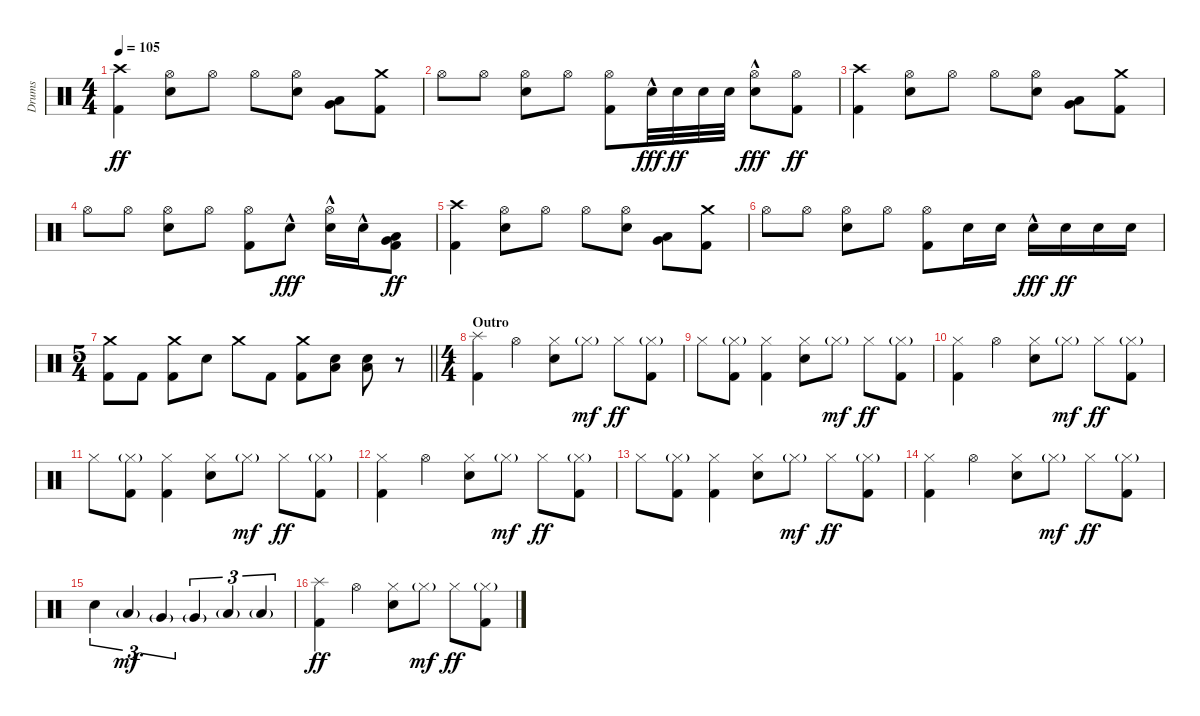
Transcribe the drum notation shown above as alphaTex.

\track ("Drums" "Drums") {instrument percussion}
\staff {score}
\articulation defaults
\ts (4 4)
\tempo 105
\clef neutral
\ks c
("Crash high (hit)" "Kick (hit) 2").4{dy ff} ("Hi-Hat (open)" "Electric Snare (hit)").8 "Hi-Hat (open)".8 "Hi-Hat (open)".8 ("Hi-Hat (open)" "Electric Snare (hit)").8 ("Very Low Tom (hit)" "Low Floor Tom (hit)").8 ("Crash medium (hit)" "Kick (hit) 2").8 |
"Hi-Hat (open)".8 "Hi-Hat (open)".8 ("Hi-Hat (open)" "Electric Snare (hit)").8 "Hi-Hat (open)".8 ("Hi-Hat (open)" "Kick (hit) 2").8 "Electric Snare (hit)"{hac}.32{dy fff} "Electric Snare (hit)".32{dy ff} "Electric Snare (hit)".32 "Electric Snare (hit)".32 ("Hi-Hat (open)" "Electric Snare (hit)"{hac}).8{dy fff} ("Hi-Hat (open)" "Kick (hit) 2").8{dy ff} |
("Crash high (hit)" "Kick (hit) 2").4 ("Hi-Hat (open)" "Electric Snare (hit)").8 "Hi-Hat (open)".8 "Hi-Hat (open)".8 ("Hi-Hat (open)" "Electric Snare (hit)").8 ("Very Low Tom (hit)" "Low Floor Tom (hit)").8 ("Crash medium (hit)" "Kick (hit) 2").8 |
"Hi-Hat (open)".8 "Hi-Hat (open)".8 ("Hi-Hat (open)" "Electric Snare (hit)").8 "Hi-Hat (open)".8 ("Hi-Hat (open)" "Kick (hit) 2").8 "Electric Snare (hit)"{hac}.8{dy fff} ("Hi-Hat (open)" "Electric Snare (hit)"{hac}).16 "Electric Snare (hit)"{hac}.16 ("Very Low Tom (hit)" "Low Floor Tom (hit)" "Kick (hit) 2").8{dy ff} |
("Crash high (hit)" "Kick (hit) 2").4 ("Hi-Hat (open)" "Electric Snare (hit)").8 "Hi-Hat (open)".8 "Hi-Hat (open)".8 ("Hi-Hat (open)" "Electric Snare (hit)").8 ("Very Low Tom (hit)" "Low Floor Tom (hit)").8 ("Crash medium (hit)" "Kick (hit) 2").8 |
"Hi-Hat (open)".8 "Hi-Hat (open)".8 ("Hi-Hat (open)" "Electric Snare (hit)").8 "Hi-Hat (open)".8 ("Hi-Hat (open)" "Kick (hit) 2").8 "Electric Snare (hit)".16 "Electric Snare (hit)".16 "Electric Snare (hit)"{hac}.16{dy fff} "Electric Snare (hit)".16{dy ff} "Electric Snare (hit)".16 "Electric Snare (hit)".16 |
\ts (5 4)
\barLineRight lightlight
("Crash medium (hit)" "Kick (hit) 2").8 "Kick (hit) 2".8 ("Crash medium (hit)" "Kick (hit) 2").8 "Electric Snare (hit)".8 "Crash medium (hit)".8 "Kick (hit) 2".8 ("Crash medium (hit)" "Kick (hit) 2").8 ("Electric Snare (hit)" "Low Floor Tom (hit)").8 ("Electric Snare (hit)" "Low Floor Tom (hit)").8 r.8 |
\ts (4 4)
\section ("" "Outro")
("Splash (hit)" "Kick (hit) 2").4 "Hi-Hat (open)".4 ("Hi-Hat (closed)" "Electric Snare (hit)").8 "Hi-Hat (closed)"{g}.8{dy mf} "Hi-Hat (closed)".8{dy ff} ("Hi-Hat (closed)"{g} "Kick (hit) 2").8 |
"Hi-Hat (closed)".8 ("Hi-Hat (closed)"{g} "Kick (hit) 2").8 ("Hi-Hat (closed)" "Kick (hit) 2").4 ("Hi-Hat (closed)" "Electric Snare (hit)").8 "Hi-Hat (closed)"{g}.8{dy mf} "Hi-Hat (closed)".8{dy ff} ("Hi-Hat (closed)"{g} "Kick (hit) 2").8 |
("Hi-Hat (closed)" "Kick (hit) 2").4 "Hi-Hat (open)".4 ("Hi-Hat (closed)" "Electric Snare (hit)").8 "Hi-Hat (closed)"{g}.8{dy mf} "Hi-Hat (closed)".8{dy ff} ("Hi-Hat (closed)"{g} "Kick (hit) 2").8 |
"Hi-Hat (closed)".8 ("Hi-Hat (closed)"{g} "Kick (hit) 2").8 ("Hi-Hat (closed)" "Kick (hit) 2").4 ("Hi-Hat (closed)" "Electric Snare (hit)").8 "Hi-Hat (closed)"{g}.8{dy mf} "Hi-Hat (closed)".8{dy ff} ("Hi-Hat (closed)"{g} "Kick (hit) 2").8 |
("Hi-Hat (closed)" "Kick (hit) 2").4 "Hi-Hat (open)".4 ("Hi-Hat (closed)" "Electric Snare (hit)").8 "Hi-Hat (closed)"{g}.8{dy mf} "Hi-Hat (closed)".8{dy ff} ("Hi-Hat (closed)"{g} "Kick (hit) 2").8 |
"Hi-Hat (closed)".8 ("Hi-Hat (closed)"{g} "Kick (hit) 2").8 ("Hi-Hat (closed)" "Kick (hit) 2").4 ("Hi-Hat (closed)" "Electric Snare (hit)").8 "Hi-Hat (closed)"{g}.8{dy mf} "Hi-Hat (closed)".8{dy ff} ("Hi-Hat (closed)"{g} "Kick (hit) 2").8 |
("Hi-Hat (closed)" "Kick (hit) 2").4 "Hi-Hat (open)".4 ("Hi-Hat (closed)" "Electric Snare (hit)").8 "Hi-Hat (closed)"{g}.8{dy mf} "Hi-Hat (closed)".8{dy ff} ("Hi-Hat (closed)"{g} "Kick (hit) 2").8 |
"Electric Snare (hit)".4{tu (3 2)} "Low Tom (hit)"{g}.4{tu (3 2) dy mf} "Very Low Tom (hit)"{g}.4{tu (3 2)} "Very Low Tom (hit)"{g}.4{tu (3 2)} "Low Floor Tom (hit)"{g}.4{tu (3 2)} "Low Floor Tom (hit)"{g}.4{tu (3 2)} |
("Splash (hit)" "Kick (hit) 2").4{dy ff} "Hi-Hat (open)".4 ("Hi-Hat (closed)" "Electric Snare (hit)").8 "Hi-Hat (closed)"{g}.8{dy mf} "Hi-Hat (closed)".8{dy ff} ("Hi-Hat (closed)"{g} "Kick (hit) 2").8
